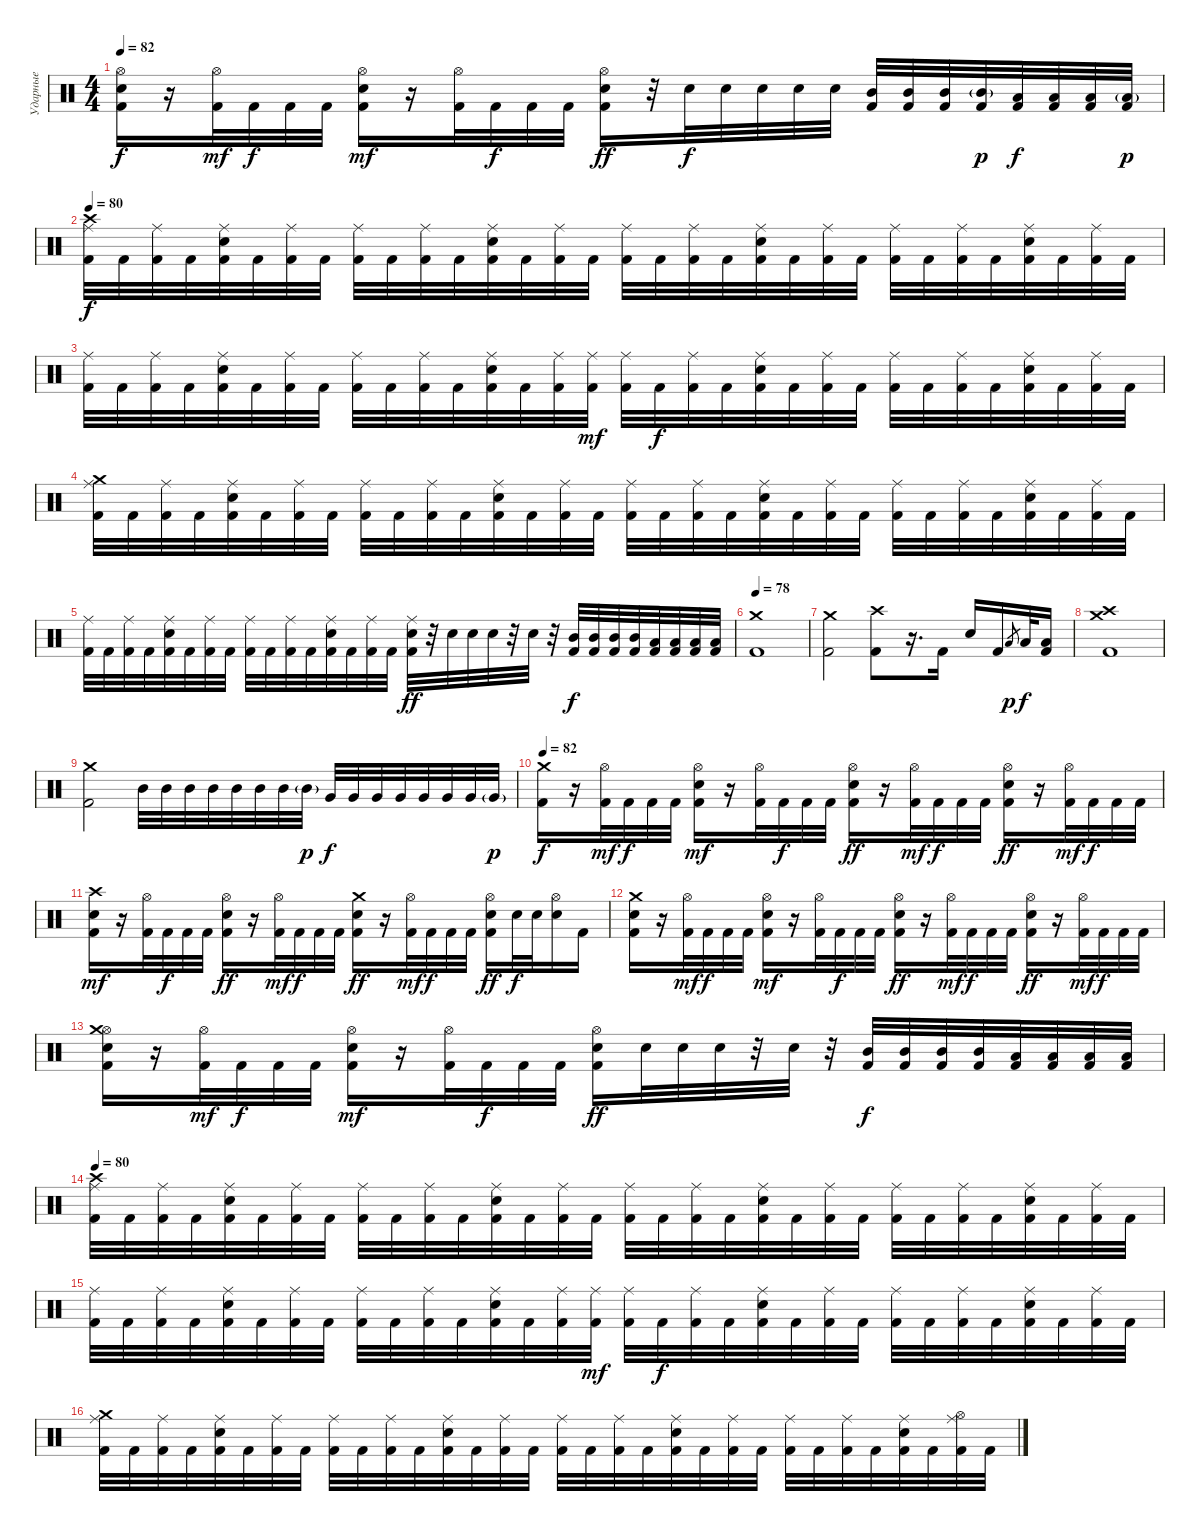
\track ("Ударные" "Ударные") {instrument percussion}
\staff {score}
\articulation defaults
\ts (4 4)
\tempo 82
\clef neutral
\ks c
("Hi-Hat (open)" "Electric Snare (hit)" "Kick (hit) 2").16{dy f} r.16 ("Hi-Hat (open)" "Kick (hit) 2").32{dy mf} "Kick (hit) 2".32{dy f} "Kick (hit) 2".32 "Kick (hit) 2".32 ("Hi-Hat (open)" "Electric Snare (hit)" "Kick (hit) 2").16{dy mf} r.16 ("Hi-Hat (open)" "Kick (hit) 2").32 "Kick (hit) 2".32{dy f} "Kick (hit) 2".32 "Kick (hit) 2".32 ("Hi-Hat (open)" "Electric Snare (hit)" "Kick (hit) 2").16{dy ff} r.32 "Electric Snare (hit)".32{dy f} "Electric Snare (hit)".32 "Electric Snare (hit)".32 "Electric Snare (hit)".32 "Electric Snare (hit)".32 ("Mid Tom (hit)" "Kick (hit) 2").32 ("Mid Tom (hit)" "Kick (hit) 2").32 ("Mid Tom (hit)" "Kick (hit) 2").32 ("Mid Tom (hit)"{g} "Kick (hit) 2").32{dy p} ("Low Tom (hit)" "Kick (hit) 2").32{dy f} ("Low Tom (hit)" "Kick (hit) 2").32 ("Low Tom (hit)" "Kick (hit) 2").32 ("Low Tom (hit)"{g} "Kick (hit) 2").32{dy p} |
\tempo 80
("Ride (middle)" "Crash high (hit)" "Kick (hit) 2").32{dy f} "Kick (hit) 2".32 ("Ride (middle)" "Kick (hit) 2").32 "Kick (hit) 2".32 ("Ride (middle)" "Electric Snare (hit)" "Kick (hit) 2").32 "Kick (hit) 2".32 ("Ride (middle)" "Kick (hit) 2").32 "Kick (hit) 2".32 ("Ride (middle)" "Kick (hit) 2").32 "Kick (hit) 2".32 ("Ride (middle)" "Kick (hit) 2").32 "Kick (hit) 2".32 ("Ride (middle)" "Electric Snare (hit)" "Kick (hit) 2").32 "Kick (hit) 2".32 ("Ride (middle)" "Kick (hit) 2").32 "Kick (hit) 2".32 ("Ride (middle)" "Kick (hit) 2").32 "Kick (hit) 2".32 ("Ride (middle)" "Kick (hit) 2").32 "Kick (hit) 2".32 ("Ride (middle)" "Electric Snare (hit)" "Kick (hit) 2").32 "Kick (hit) 2".32 ("Ride (middle)" "Kick (hit) 2").32 "Kick (hit) 2".32 ("Ride (middle)" "Kick (hit) 2").32 "Kick (hit) 2".32 ("Ride (middle)" "Kick (hit) 2").32 "Kick (hit) 2".32 ("Ride (middle)" "Electric Snare (hit)" "Kick (hit) 2").32 "Kick (hit) 2".32 ("Ride (middle)" "Kick (hit) 2").32 "Kick (hit) 2".32 |
("Ride (middle)" "Kick (hit) 2").32 "Kick (hit) 2".32 ("Ride (middle)" "Kick (hit) 2").32 "Kick (hit) 2".32 ("Ride (middle)" "Electric Snare (hit)" "Kick (hit) 2").32 "Kick (hit) 2".32 ("Ride (middle)" "Kick (hit) 2").32 "Kick (hit) 2".32 ("Ride (middle)" "Kick (hit) 2").32 "Kick (hit) 2".32 ("Ride (middle)" "Kick (hit) 2").32 "Kick (hit) 2".32 ("Ride (middle)" "Electric Snare (hit)" "Kick (hit) 2").32 "Kick (hit) 2".32 ("Ride (middle)" "Kick (hit) 2").32 ("Ride (middle)" "Kick (hit) 2").32{dy mf} ("Ride (middle)" "Kick (hit) 2").32 "Kick (hit) 2".32{dy f} ("Ride (middle)" "Kick (hit) 2").32 "Kick (hit) 2".32 ("Ride (middle)" "Electric Snare (hit)" "Kick (hit) 2").32 "Kick (hit) 2".32 ("Ride (middle)" "Kick (hit) 2").32 "Kick (hit) 2".32 ("Ride (middle)" "Kick (hit) 2").32 "Kick (hit) 2".32 ("Ride (middle)" "Kick (hit) 2").32 "Kick (hit) 2".32 ("Ride (middle)" "Electric Snare (hit)" "Kick (hit) 2").32 "Kick (hit) 2".32 ("Ride (middle)" "Kick (hit) 2").32 "Kick (hit) 2".32 |
("Ride (middle)" "Crash medium (hit)" "Kick (hit) 2").32 "Kick (hit) 2".32 ("Ride (middle)" "Kick (hit) 2").32 "Kick (hit) 2".32 ("Ride (middle)" "Electric Snare (hit)" "Kick (hit) 2").32 "Kick (hit) 2".32 ("Ride (middle)" "Kick (hit) 2").32 "Kick (hit) 2".32 ("Ride (middle)" "Kick (hit) 2").32 "Kick (hit) 2".32 ("Ride (middle)" "Kick (hit) 2").32 "Kick (hit) 2".32 ("Ride (middle)" "Electric Snare (hit)" "Kick (hit) 2").32 "Kick (hit) 2".32 ("Ride (middle)" "Kick (hit) 2").32 "Kick (hit) 2".32 ("Ride (middle)" "Kick (hit) 2").32 "Kick (hit) 2".32 ("Ride (middle)" "Kick (hit) 2").32 "Kick (hit) 2".32 ("Ride (middle)" "Electric Snare (hit)" "Kick (hit) 2").32 "Kick (hit) 2".32 ("Ride (middle)" "Kick (hit) 2").32 "Kick (hit) 2".32 ("Ride (middle)" "Kick (hit) 2").32 "Kick (hit) 2".32 ("Ride (middle)" "Kick (hit) 2").32 "Kick (hit) 2".32 ("Ride (middle)" "Electric Snare (hit)" "Kick (hit) 2").32 "Kick (hit) 2".32 ("Ride (middle)" "Kick (hit) 2").32 "Kick (hit) 2".32 |
("Ride (middle)" "Kick (hit) 2").32 "Kick (hit) 2".32 ("Ride (middle)" "Kick (hit) 2").32 "Kick (hit) 2".32 ("Ride (middle)" "Electric Snare (hit)" "Kick (hit) 2").32 "Kick (hit) 2".32 ("Ride (middle)" "Kick (hit) 2").32 "Kick (hit) 2".32 ("Ride (middle)" "Kick (hit) 2").32 "Kick (hit) 2".32 ("Ride (middle)" "Kick (hit) 2").32 "Kick (hit) 2".32 ("Ride (middle)" "Electric Snare (hit)" "Kick (hit) 2").32 "Kick (hit) 2".32 ("Ride (middle)" "Kick (hit) 2").32 "Kick (hit) 2".32 ("Ride (middle)" "Electric Snare (hit)" "Kick (hit) 2").32{dy ff} r.32 "Electric Snare (hit)".32 "Electric Snare (hit)".32 "Electric Snare (hit)".32 r.32 "Electric Snare (hit)".32 r.32 ("Mid Tom (hit)" "Kick (hit) 2").32{dy f} ("Mid Tom (hit)" "Kick (hit) 2").32 ("Mid Tom (hit)" "Kick (hit) 2").32 ("Mid Tom (hit)" "Kick (hit) 2").32 ("Low Tom (hit)" "Kick (hit) 2").32 ("Low Tom (hit)" "Kick (hit) 2").32 ("Low Tom (hit)" "Kick (hit) 2").32 ("Low Tom (hit)" "Kick (hit) 2").32 |
\tempo 78
("Crash medium (hit)" "Kick (hit) 2").1 |
("Crash medium (hit)" "Kick (hit) 2").2 ("Crash high (hit)" "Kick (hit) 2").8 r.16{d} "Kick (hit) 2".16 "Electric Snare (hit)".16 "Kick (hit) 2".16 "Low Tom (hit)".8{gr dy p} "Low Tom (hit)".32{dy f} ("Low Floor Tom (hit)" "Kick (hit) 2").16 |
("Crash medium (hit)" "Crash high (hit)" "Kick (hit) 2").1 |
("Crash medium (hit)" "Kick (hit) 2").2 "Mid Tom (hit)".32 "Mid Tom (hit)".32 "Mid Tom (hit)".32 "Mid Tom (hit)".32 "Mid Tom (hit)".32 "Mid Tom (hit)".32 "Mid Tom (hit)".32 "Mid Tom (hit)"{g}.32{dy p} "Very Low Tom (hit)".32{dy f} "Very Low Tom (hit)".32 "Very Low Tom (hit)".32 "Very Low Tom (hit)".32 "Very Low Tom (hit)".32 "Very Low Tom (hit)".32 "Very Low Tom (hit)".32 "Very Low Tom (hit)"{g}.32{dy p} |
\tempo 82
("Crash medium (hit)" "Kick (hit) 2").16{dy f} r.16 ("Hi-Hat (open)" "Kick (hit) 2").32{dy mf} "Kick (hit) 2".32{dy f} "Kick (hit) 2".32 "Kick (hit) 2".32 ("Hi-Hat (open)" "Electric Snare (hit)" "Kick (hit) 2").16{dy mf} r.16 ("Hi-Hat (open)" "Kick (hit) 2").32 "Kick (hit) 2".32{dy f} "Kick (hit) 2".32 "Kick (hit) 2".32 ("Hi-Hat (open)" "Electric Snare (hit)" "Kick (hit) 2").16{dy ff} r.16 ("Hi-Hat (open)" "Kick (hit) 2").32{dy mf} "Kick (hit) 2".32{dy f} "Kick (hit) 2".32 "Kick (hit) 2".32 ("Hi-Hat (open)" "Electric Snare (hit)" "Kick (hit) 2").16{dy ff} r.16 ("Hi-Hat (open)" "Kick (hit) 2").32{dy mf} "Kick (hit) 2".32{dy f} "Kick (hit) 2".32 "Kick (hit) 2".32 |
("Crash high (hit)" "Electric Snare (hit)" "Kick (hit) 2").16{dy mf} r.16 ("Hi-Hat (open)" "Kick (hit) 2").32 "Kick (hit) 2".32{dy f} "Kick (hit) 2".32 "Kick (hit) 2".32 ("Hi-Hat (open)" "Electric Snare (hit)" "Kick (hit) 2").16{dy ff} r.16 ("Hi-Hat (open)" "Kick (hit) 2").32{dy mf} "Kick (hit) 2".32{dy f} "Kick (hit) 2".32 "Kick (hit) 2".32 ("Crash medium (hit)" "Electric Snare (hit)" "Kick (hit) 2").16{dy ff} r.16 ("Hi-Hat (open)" "Kick (hit) 2").32{dy mf} "Kick (hit) 2".32{dy f} "Kick (hit) 2".32 "Kick (hit) 2".32 ("Hi-Hat (open)" "Electric Snare (hit)" "Kick (hit) 2").16{dy ff} "Electric Snare (hit)".32{dy f} "Electric Snare (hit)".32 ("Hi-Hat (open)" "Electric Snare (hit)").16 "Kick (hit) 2".16 |
("Crash medium (hit)" "Electric Snare (hit)" "Kick (hit) 2").16 r.16 ("Hi-Hat (open)" "Kick (hit) 2").32{dy mf} "Kick (hit) 2".32{dy f} "Kick (hit) 2".32 "Kick (hit) 2".32 ("Hi-Hat (open)" "Electric Snare (hit)" "Kick (hit) 2").16{dy mf} r.16 ("Hi-Hat (open)" "Kick (hit) 2").32 "Kick (hit) 2".32{dy f} "Kick (hit) 2".32 "Kick (hit) 2".32 ("Hi-Hat (open)" "Electric Snare (hit)" "Kick (hit) 2").16{dy ff} r.16 ("Hi-Hat (open)" "Kick (hit) 2").32{dy mf} "Kick (hit) 2".32{dy f} "Kick (hit) 2".32 "Kick (hit) 2".32 ("Hi-Hat (open)" "Electric Snare (hit)" "Kick (hit) 2").16{dy ff} r.16 ("Hi-Hat (open)" "Kick (hit) 2").32{dy mf} "Kick (hit) 2".32{dy f} "Kick (hit) 2".32 "Kick (hit) 2".32 |
("Hi-Hat (open)" "Crash medium (hit)" "Electric Snare (hit)" "Kick (hit) 2").16 r.16 ("Hi-Hat (open)" "Kick (hit) 2").32{dy mf} "Kick (hit) 2".32{dy f} "Kick (hit) 2".32 "Kick (hit) 2".32 ("Hi-Hat (open)" "Electric Snare (hit)" "Kick (hit) 2").16{dy mf} r.16 ("Hi-Hat (open)" "Kick (hit) 2").32 "Kick (hit) 2".32{dy f} "Kick (hit) 2".32 "Kick (hit) 2".32 ("Hi-Hat (open)" "Electric Snare (hit)" "Kick (hit) 2").16{dy ff} "Electric Snare (hit)".32 "Electric Snare (hit)".32 "Electric Snare (hit)".32 r.32 "Electric Snare (hit)".32 r.32 ("Mid Tom (hit)" "Kick (hit) 2").32{dy f} ("Mid Tom (hit)" "Kick (hit) 2").32 ("Mid Tom (hit)" "Kick (hit) 2").32 ("Mid Tom (hit)" "Kick (hit) 2").32 ("Low Tom (hit)" "Kick (hit) 2").32 ("Low Tom (hit)" "Kick (hit) 2").32 ("Low Tom (hit)" "Kick (hit) 2").32 ("Low Tom (hit)" "Kick (hit) 2").32 |
\tempo 80
("Ride (middle)" "Crash high (hit)" "Kick (hit) 2").32 "Kick (hit) 2".32 ("Ride (middle)" "Kick (hit) 2").32 "Kick (hit) 2".32 ("Ride (middle)" "Electric Snare (hit)" "Kick (hit) 2").32 "Kick (hit) 2".32 ("Ride (middle)" "Kick (hit) 2").32 "Kick (hit) 2".32 ("Ride (middle)" "Kick (hit) 2").32 "Kick (hit) 2".32 ("Ride (middle)" "Kick (hit) 2").32 "Kick (hit) 2".32 ("Ride (middle)" "Electric Snare (hit)" "Kick (hit) 2").32 "Kick (hit) 2".32 ("Ride (middle)" "Kick (hit) 2").32 "Kick (hit) 2".32 ("Ride (middle)" "Kick (hit) 2").32 "Kick (hit) 2".32 ("Ride (middle)" "Kick (hit) 2").32 "Kick (hit) 2".32 ("Ride (middle)" "Electric Snare (hit)" "Kick (hit) 2").32 "Kick (hit) 2".32 ("Ride (middle)" "Kick (hit) 2").32 "Kick (hit) 2".32 ("Ride (middle)" "Kick (hit) 2").32 "Kick (hit) 2".32 ("Ride (middle)" "Kick (hit) 2").32 "Kick (hit) 2".32 ("Ride (middle)" "Electric Snare (hit)" "Kick (hit) 2").32 "Kick (hit) 2".32 ("Ride (middle)" "Kick (hit) 2").32 "Kick (hit) 2".32 |
("Ride (middle)" "Kick (hit) 2").32 "Kick (hit) 2".32 ("Ride (middle)" "Kick (hit) 2").32 "Kick (hit) 2".32 ("Ride (middle)" "Electric Snare (hit)" "Kick (hit) 2").32 "Kick (hit) 2".32 ("Ride (middle)" "Kick (hit) 2").32 "Kick (hit) 2".32 ("Ride (middle)" "Kick (hit) 2").32 "Kick (hit) 2".32 ("Ride (middle)" "Kick (hit) 2").32 "Kick (hit) 2".32 ("Ride (middle)" "Electric Snare (hit)" "Kick (hit) 2").32 "Kick (hit) 2".32 ("Ride (middle)" "Kick (hit) 2").32 ("Ride (middle)" "Kick (hit) 2").32{dy mf} ("Ride (middle)" "Kick (hit) 2").32 "Kick (hit) 2".32{dy f} ("Ride (middle)" "Kick (hit) 2").32 "Kick (hit) 2".32 ("Ride (middle)" "Electric Snare (hit)" "Kick (hit) 2").32 "Kick (hit) 2".32 ("Ride (middle)" "Kick (hit) 2").32 "Kick (hit) 2".32 ("Ride (middle)" "Kick (hit) 2").32 "Kick (hit) 2".32 ("Ride (middle)" "Kick (hit) 2").32 "Kick (hit) 2".32 ("Ride (middle)" "Electric Snare (hit)" "Kick (hit) 2").32 "Kick (hit) 2".32 ("Ride (middle)" "Kick (hit) 2").32 "Kick (hit) 2".32 |
("Ride (middle)" "Crash medium (hit)" "Kick (hit) 2").32 "Kick (hit) 2".32 ("Ride (middle)" "Kick (hit) 2").32 "Kick (hit) 2".32 ("Ride (middle)" "Electric Snare (hit)" "Kick (hit) 2").32 "Kick (hit) 2".32 ("Ride (middle)" "Kick (hit) 2").32 "Kick (hit) 2".32 ("Ride (middle)" "Kick (hit) 2").32 "Kick (hit) 2".32 ("Ride (middle)" "Kick (hit) 2").32 "Kick (hit) 2".32 ("Ride (middle)" "Electric Snare (hit)" "Kick (hit) 2").32 "Kick (hit) 2".32 ("Ride (middle)" "Kick (hit) 2").32 "Kick (hit) 2".32 ("Ride (middle)" "Kick (hit) 2").32 "Kick (hit) 2".32 ("Ride (middle)" "Kick (hit) 2").32 "Kick (hit) 2".32 ("Ride (middle)" "Electric Snare (hit)" "Kick (hit) 2").32 "Kick (hit) 2".32 ("Ride (middle)" "Kick (hit) 2").32 "Kick (hit) 2".32 ("Ride (middle)" "Kick (hit) 2").32 "Kick (hit) 2".32 ("Ride (middle)" "Kick (hit) 2").32 "Kick (hit) 2".32 ("Ride (middle)" "Electric Snare (hit)" "Kick (hit) 2").32 "Kick (hit) 2".32 ("Ride (middle)" "Hi-Hat (open)" "Kick (hit) 2").32 "Kick (hit) 2".32
